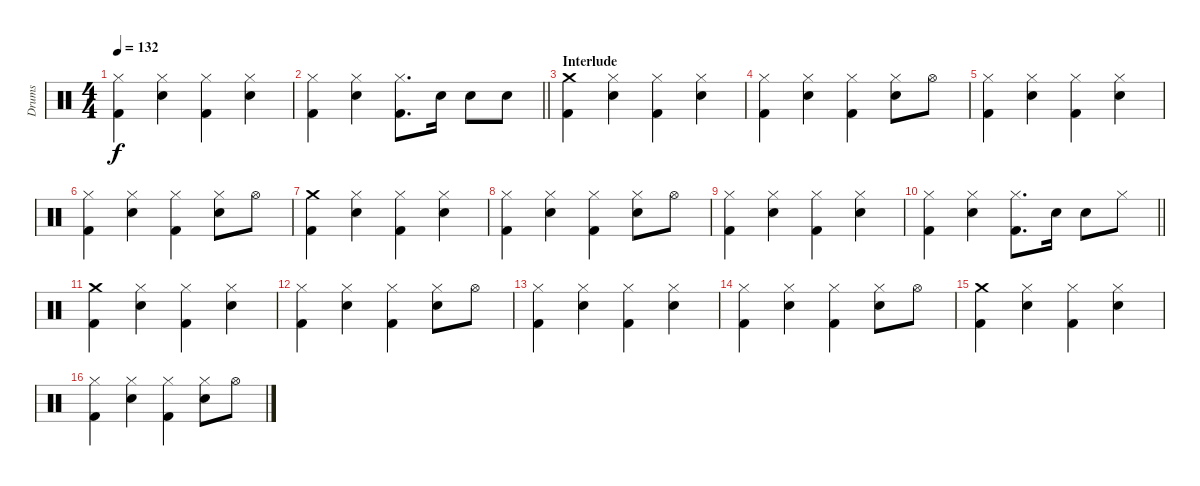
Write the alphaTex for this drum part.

\track ("Drums" "Drums") {instrument percussion}
\staff {score}
\articulation defaults
\ts (4 4)
\tempo 132
\clef neutral
\ks c
("Hi-Hat (closed)" "Kick (hit) 2").4{dy f} ("Hi-Hat (closed)" "Electric Snare (hit)").4 ("Hi-Hat (closed)" "Kick (hit) 2").4 ("Hi-Hat (closed)" "Electric Snare (hit)").4 |
\barLineRight lightlight
("Hi-Hat (closed)" "Kick (hit) 2").4 ("Hi-Hat (closed)" "Electric Snare (hit)").4 ("Hi-Hat (closed)" "Kick (hit) 2").8{d} "Electric Snare (hit)".16 "Electric Snare (hit)".8 "Electric Snare (hit)".8 |
\section ("" "Interlude")
("Crash medium (hit)" "Kick (hit) 2").4 ("Hi-Hat (closed)" "Electric Snare (hit)").4 ("Hi-Hat (closed)" "Kick (hit) 2").4 ("Hi-Hat (closed)" "Electric Snare (hit)").4 |
("Hi-Hat (closed)" "Kick (hit) 2").4 ("Hi-Hat (closed)" "Electric Snare (hit)").4 ("Hi-Hat (closed)" "Kick (hit) 2").4 ("Hi-Hat (closed)" "Electric Snare (hit)").8 "Hi-Hat (open)".8 |
("Hi-Hat (closed)" "Kick (hit) 2").4 ("Hi-Hat (closed)" "Electric Snare (hit)").4 ("Hi-Hat (closed)" "Kick (hit) 2").4 ("Hi-Hat (closed)" "Electric Snare (hit)").4 |
("Hi-Hat (closed)" "Kick (hit) 2").4 ("Hi-Hat (closed)" "Electric Snare (hit)").4 ("Hi-Hat (closed)" "Kick (hit) 2").4 ("Hi-Hat (closed)" "Electric Snare (hit)").8 "Hi-Hat (open)".8 |
("Crash medium (hit)" "Kick (hit) 2").4 ("Hi-Hat (closed)" "Electric Snare (hit)").4 ("Hi-Hat (closed)" "Kick (hit) 2").4 ("Hi-Hat (closed)" "Electric Snare (hit)").4 |
("Hi-Hat (closed)" "Kick (hit) 2").4 ("Hi-Hat (closed)" "Electric Snare (hit)").4 ("Hi-Hat (closed)" "Kick (hit) 2").4 ("Hi-Hat (closed)" "Electric Snare (hit)").8 "Hi-Hat (open)".8 |
("Hi-Hat (closed)" "Kick (hit) 2").4 ("Hi-Hat (closed)" "Electric Snare (hit)").4 ("Hi-Hat (closed)" "Kick (hit) 2").4 ("Hi-Hat (closed)" "Electric Snare (hit)").4 |
\barLineRight lightlight
("Hi-Hat (closed)" "Kick (hit) 2").4 ("Hi-Hat (closed)" "Electric Snare (hit)").4 ("Hi-Hat (closed)" "Kick (hit) 2").8{d} "Electric Snare (hit)".16 "Electric Snare (hit)".8 "Hi-Hat (closed)".8 |
("Crash medium (hit)" "Kick (hit) 2").4 ("Hi-Hat (closed)" "Electric Snare (hit)").4 ("Hi-Hat (closed)" "Kick (hit) 2").4 ("Hi-Hat (closed)" "Electric Snare (hit)").4 |
("Hi-Hat (closed)" "Kick (hit) 2").4 ("Hi-Hat (closed)" "Electric Snare (hit)").4 ("Hi-Hat (closed)" "Kick (hit) 2").4 ("Hi-Hat (closed)" "Electric Snare (hit)").8 "Hi-Hat (open)".8 |
("Hi-Hat (closed)" "Kick (hit) 2").4 ("Hi-Hat (closed)" "Electric Snare (hit)").4 ("Hi-Hat (closed)" "Kick (hit) 2").4 ("Hi-Hat (closed)" "Electric Snare (hit)").4 |
("Hi-Hat (closed)" "Kick (hit) 2").4 ("Hi-Hat (closed)" "Electric Snare (hit)").4 ("Hi-Hat (closed)" "Kick (hit) 2").4 ("Hi-Hat (closed)" "Electric Snare (hit)").8 "Hi-Hat (open)".8 |
("Crash medium (hit)" "Kick (hit) 2").4 ("Hi-Hat (closed)" "Electric Snare (hit)").4 ("Hi-Hat (closed)" "Kick (hit) 2").4 ("Hi-Hat (closed)" "Electric Snare (hit)").4 |
("Hi-Hat (closed)" "Kick (hit) 2").4 ("Hi-Hat (closed)" "Electric Snare (hit)").4 ("Hi-Hat (closed)" "Kick (hit) 2").4 ("Hi-Hat (closed)" "Electric Snare (hit)").8 "Hi-Hat (open)".8
